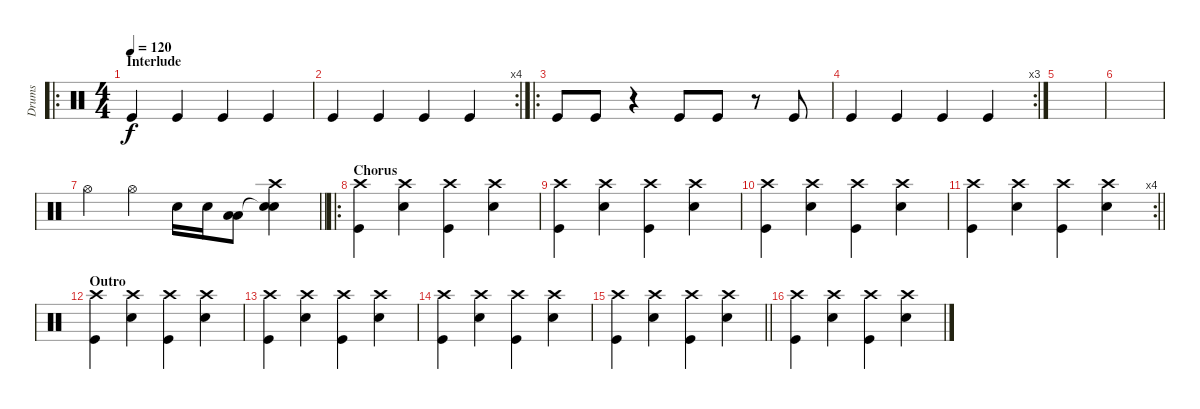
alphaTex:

\track ("Drums" "Drums") {instrument percussion}
\staff {score}
\articulation defaults
\ro
\ts (4 4)
\section ("" "Interlude")
\tempo 120
\clef neutral
\ks c "Kick (hit)".4{dy f} "Kick (hit)".4 "Kick (hit)".4 "Kick (hit)".4
|
\rc 4 "Kick (hit)".4 "Kick (hit)".4 "Kick (hit)".4 "Kick (hit)".4
|
\ro "Kick (hit)".8 "Kick (hit)".8
r.4 "Kick (hit)".8 "Kick (hit)".8 r.8 "Kick (hit)".8 |
\rc 3 "Kick (hit)".4 "Kick (hit)".4 "Kick (hit)".4 "Kick (hit)".4
|
|
|
\barLineRight lightlight "Hi-Hat (open)".4 "Hi-Hat (open)".4 "Snare (hit) 2".16 "Snare (hit) 2".16
("Low Tom (hit)" "Low Floor Tom (hit)").8 ("Crash high (hit)" "Snare (hit)"{t} "Snare (hit)").4 |
\ro
\section ("" "Chorus")
("Crash high (hit)" "Kick (hit)").4 ("Crash high (hit)" "Snare (hit) 2").4 ("Crash high (hit)" "Kick (hit)").4 ("Crash high (hit)" "Snare (hit) 2").4 |
("Crash high (hit)" "Kick (hit)").4 ("Crash high (hit)" "Snare (hit) 2").4 ("Crash high (hit)" "Kick (hit)").4 ("Crash high (hit)" "Snare (hit) 2").4 |
("Crash high (hit)" "Kick (hit)").4 ("Crash high (hit)" "Snare (hit) 2").4 ("Crash high (hit)" "Kick (hit)").4 ("Crash high (hit)" "Snare (hit) 2").4 |
\rc 4
\barLineRight lightlight
("Crash high (hit)" "Kick (hit)").4 ("Crash high (hit)" "Snare (hit) 2").4 ("Crash high (hit)" "Kick (hit)").4 ("Crash high (hit)" "Snare (hit) 2").4 |
\section ("" "Outro")
("Crash high (hit)" "Kick (hit)").4 ("Crash high (hit)" "Snare (hit) 2").4 ("Crash high (hit)" "Kick (hit)").4 ("Crash high (hit)" "Snare (hit) 2").4 |
("Crash high (hit)" "Kick (hit)").4 ("Crash high (hit)" "Snare (hit) 2").4 ("Crash high (hit)" "Kick (hit)").4 ("Crash high (hit)" "Snare (hit) 2").4 |
("Crash high (hit)" "Kick (hit)").4 ("Crash high (hit)" "Snare (hit) 2").4 ("Crash high (hit)" "Kick (hit)").4 ("Crash high (hit)" "Snare (hit) 2").4 |
\barLineRight lightlight
("Crash high (hit)" "Kick (hit)").4 ("Crash high (hit)" "Snare (hit) 2").4 ("Crash high (hit)" "Kick (hit)").4 ("Crash high (hit)" "Snare (hit) 2").4 |
("Crash high (hit)" "Kick (hit)").4 ("Crash high (hit)" "Snare (hit) 2").4 ("Crash high (hit)" "Kick (hit)").4 ("Crash high (hit)" "Snare (hit) 2").4
